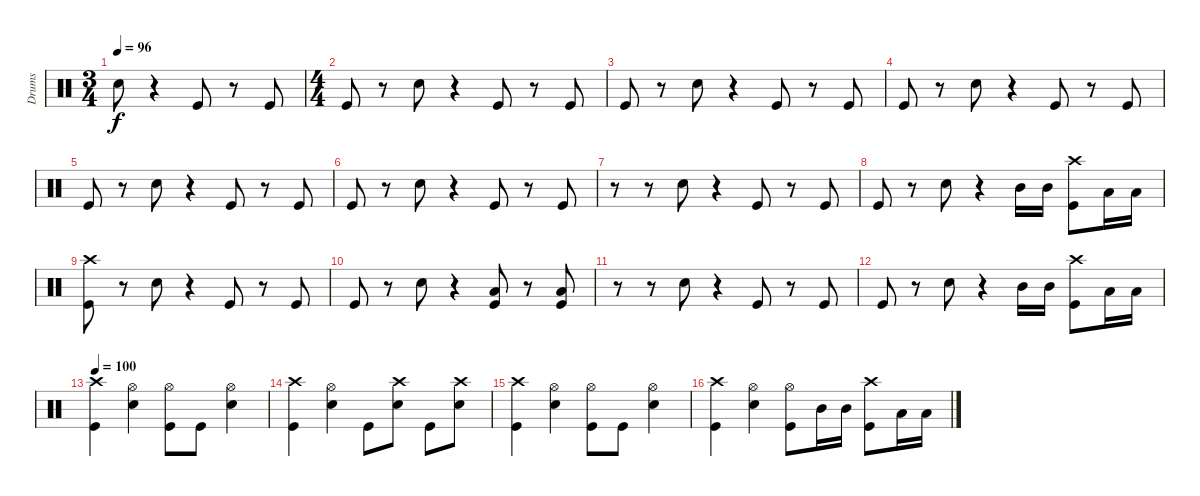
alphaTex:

\track ("Drums" "Drums") {instrument percussion}
\staff {score}
\articulation defaults
\ts (3 4)
\tempo 96
\clef neutral
\ks c "Snare (hit) 2".8{dy f}
r.4 "Kick (hit)".8 r.8 "Kick (hit)".8 |
\ts (4 4)
"Kick (hit)".8 r.8 "Snare (hit) 2".8 r.4 "Kick (hit)".8 r.8 "Kick (hit)".8 |
"Kick (hit)".8 r.8 "Snare (hit) 2".8 r.4 "Kick (hit)".8 r.8 "Kick (hit)".8 |
"Kick (hit)".8 r.8 "Snare (hit) 2".8 r.4 "Kick (hit)".8 r.8 "Kick (hit)".8 |
"Kick (hit)".8 r.8 "Snare (hit) 2".8 r.4 "Kick (hit)".8 r.8 "Kick (hit)".8 |
"Kick (hit)".8 r.8 "Snare (hit) 2".8 r.4 "Kick (hit)".8 r.8 "Kick (hit)".8 |
r.8 r.8 "Snare (hit) 2".8 r.4 "Kick (hit)".8 r.8 "Kick (hit)".8 |
"Kick (hit)".8 r.8 "Snare (hit) 2".8 r.4 "Mid Tom (hit)".16 "Mid Tom (hit)".16 ("Crash high (hit)" "Kick (hit)").8 "Low Tom (hit)".16 "Low Tom (hit)".16 |
("Crash high (hit)" "Kick (hit)").8 r.8 "Snare (hit) 2".8 r.4 "Kick (hit)".8 r.8 "Kick (hit)".8 |
"Kick (hit)".8 r.8 "Snare (hit) 2".8 r.4 ("Low Tom (hit)" "Kick (hit)").8 r.8 ("Low Tom (hit)" "Kick (hit)").8 |
r.8 r.8 "Snare (hit) 2".8 r.4 "Kick (hit)".8 r.8 "Kick (hit)".8 |
"Kick (hit)".8 r.8 "Snare (hit) 2".8 r.4 "Mid Tom (hit)".16 "Mid Tom (hit)".16 ("Crash high (hit)" "Kick (hit)").8 "Low Tom (hit)".16 "Low Tom (hit)".16 |
\tempo 100
("Crash high (hit)" "Kick (hit)").4 ("Hi-Hat (open)" "Snare (hit) 2").4 ("Hi-Hat (open)" "Kick (hit)").8 "Kick (hit)".8 ("Hi-Hat (open)" "Snare (hit) 2").4 |
("Crash high (hit)" "Kick (hit)").4 ("Hi-Hat (open)" "Snare (hit) 2").4 "Kick (hit)".8 ("Crash high (hit)" "Snare (hit) 2").8 "Kick (hit)".8 ("Crash high (hit)" "Snare (hit) 2").8 |
("Crash high (hit)" "Kick (hit)").4 ("Hi-Hat (open)" "Snare (hit) 2").4 ("Hi-Hat (open)" "Kick (hit)").8 "Kick (hit)".8 ("Hi-Hat (open)" "Snare (hit) 2").4 |
("Crash high (hit)" "Kick (hit)").4 ("Hi-Hat (open)" "Snare (hit) 2").4 ("Hi-Hat (open)" "Kick (hit)").8 "Mid Tom (hit)".16 "Mid Tom (hit)".16 ("Crash high (hit)" "Kick (hit)").8 "Low Tom (hit)".16 "Low Tom (hit)".16
